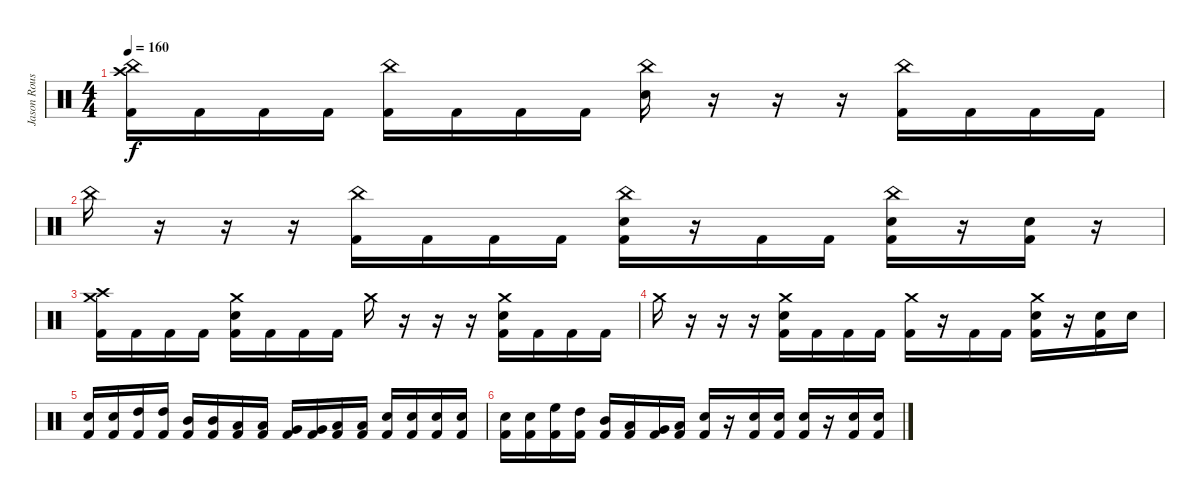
\track ("Jason Rousseau" "Jason Rous") {instrument percussion}
\staff {score}
\articulation defaults
\ts (4 4)
\tempo 160
\clef neutral
\ks c
("Crash high (hit)" "China (hit)" "Kick (hit) 2").16{dy f} "Kick (hit) 2".16 "Kick (hit) 2".16 "Kick (hit) 2".16 ("China (hit)" "Kick (hit) 2").16 "Kick (hit) 2".16 "Kick (hit) 2".16 "Kick (hit) 2".16 ("China (hit)" "Electric Snare (hit)").16 r.16 r.16 r.16 ("China (hit)" "Kick (hit) 2").16 "Kick (hit) 2".16 "Kick (hit) 2".16 "Kick (hit) 2".16 |
"China (hit)".16 r.16 r.16 r.16 ("China (hit)" "Kick (hit) 2").16 "Kick (hit) 2".16 "Kick (hit) 2".16 "Kick (hit) 2".16 ("China (hit)" "Electric Snare (hit)" "Kick (hit) 2").16 r.16 "Kick (hit) 2".16 "Kick (hit) 2".16 ("China (hit)" "Electric Snare (hit)" "Kick (hit) 2").16 r.16 ("Electric Snare (hit)" "Kick (hit) 2").16 r.16 |
("Crash high (hit)" "Crash medium (hit)" "Kick (hit) 2").16 "Kick (hit) 2".16 "Kick (hit) 2".16 "Kick (hit) 2".16 ("Crash medium (hit)" "Electric Snare (hit)" "Kick (hit) 2").16 "Kick (hit) 2".16 "Kick (hit) 2".16 "Kick (hit) 2".16 "Crash medium (hit)".16 r.16 r.16 r.16 ("Crash medium (hit)" "Electric Snare (hit)" "Kick (hit) 2").16 "Kick (hit) 2".16 "Kick (hit) 2".16 "Kick (hit) 2".16 |
"Crash medium (hit)".16 r.16 r.16 r.16 ("Crash medium (hit)" "Electric Snare (hit)" "Kick (hit) 2").16 "Kick (hit) 2".16 "Kick (hit) 2".16 "Kick (hit) 2".16 ("Crash medium (hit)" "Kick (hit) 2").16 r.16 "Kick (hit) 2".16 "Kick (hit) 2".16 ("Crash medium (hit)" "Electric Snare (hit)" "Kick (hit) 2").16 r.16 ("Electric Snare (hit)" "Kick (hit) 2").16 "Electric Snare (hit)".16 |
("Electric Snare (hit)" "Kick (hit) 2").16 ("Electric Snare (hit)" "Kick (hit) 2").16 ("High Tom (hit)" "Kick (hit) 2").16 ("High Tom (hit)" "Kick (hit) 2").16 ("Mid Tom (hit)" "Kick (hit) 2").16 ("Mid Tom (hit)" "Kick (hit) 2").16 ("Low Tom (hit)" "Kick (hit) 2").16 ("Low Tom (hit)" "Kick (hit) 2").16 ("Very Low Tom (hit)" "Kick (hit) 2").16 ("Very Low Tom (hit)" "Kick (hit) 2").16 ("Low Floor Tom (hit)" "Kick (hit) 2").16 ("Low Floor Tom (hit)" "Kick (hit) 2").16 ("Electric Snare (hit)" "Kick (hit) 2").16 ("Electric Snare (hit)" "Kick (hit) 2").16 ("Electric Snare (hit)" "Kick (hit) 2").16 ("Electric Snare (hit)" "Kick (hit) 2").16 |
("Electric Snare (hit)" "Kick (hit) 2").16 ("Electric Snare (hit)" "Kick (hit) 2").16 ("High Floor Tom (hit)" "Kick (hit) 2").16 ("High Tom (hit)" "Kick (hit) 2").16 ("Mid Tom (hit)" "Kick (hit) 2").16 ("Low Tom (hit)" "Kick (hit) 2").16 ("Very Low Tom (hit)" "Kick (hit) 2").16 ("Low Floor Tom (hit)" "Kick (hit) 2").16 ("Electric Snare (hit)" "Kick (hit) 2").16 r.16 ("Electric Snare (hit)" "Kick (hit) 2").16 ("Electric Snare (hit)" "Kick (hit) 2").16 ("Electric Snare (hit)" "Kick (hit) 2").16 r.16 ("Electric Snare (hit)" "Kick (hit) 2").16 ("Electric Snare (hit)" "Kick (hit) 2").16
